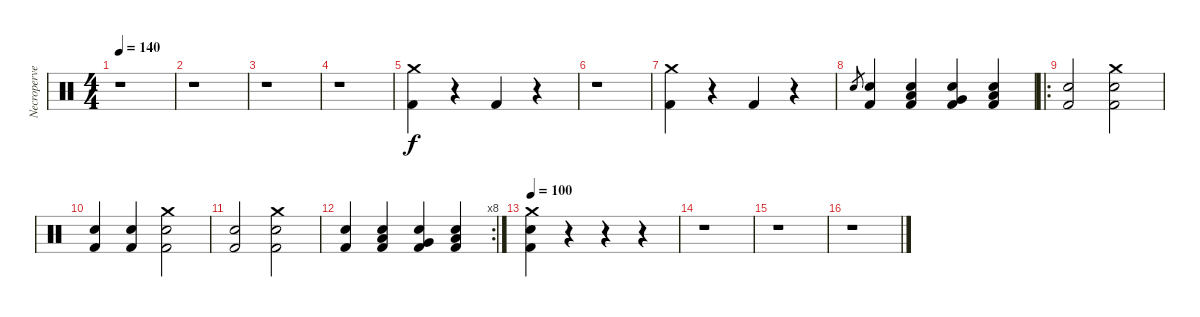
\track ("Necroperversor" "Necroperve") {instrument percussion}
\staff {score}
\articulation defaults
\ts (4 4)
\tempo 140
\clef neutral
\ks c
r.1{dy f} |
r.1 |
r.1 |
r.1 |
("Crash medium (hit)" "Kick (hit) 2").4 r.4 "Kick (hit) 2".4 r.4 |
r.1 |
("Crash medium (hit)" "Kick (hit) 2").4 r.4 "Kick (hit) 2".4 r.4 |
"Electric Snare (hit)".8{gr} ("Electric Snare (hit)" "Kick (hit) 2").4 ("Low Tom (hit)" "Electric Snare (hit)" "Kick (hit) 2").4 ("Very Low Tom (hit)" "Electric Snare (hit)" "Kick (hit) 2").4 ("Low Floor Tom (hit)" "Electric Snare (hit)" "Kick (hit) 2").4 |
\ro
("Electric Snare (hit)" "Kick (hit) 2").2 ("Crash medium (hit)" "Electric Snare (hit)" "Kick (hit) 2").2 |
("Electric Snare (hit)" "Kick (hit) 2").4 ("Electric Snare (hit)" "Kick (hit) 2").4 ("Crash medium (hit)" "Electric Snare (hit)" "Kick (hit) 2").2 |
("Electric Snare (hit)" "Kick (hit) 2").2 ("Crash medium (hit)" "Electric Snare (hit)" "Kick (hit) 2").2 |
\rc 8
("Electric Snare (hit)" "Kick (hit) 2").4 ("Low Tom (hit)" "Electric Snare (hit)" "Kick (hit) 2").4 ("Very Low Tom (hit)" "Electric Snare (hit)" "Kick (hit) 2").4 ("Low Floor Tom (hit)" "Electric Snare (hit)" "Kick (hit) 2").4 |
\tempo 100
("Crash medium (hit)" "Electric Snare (hit)" "Kick (hit) 2").4 r.4 r.4 r.4 |
r.1 |
r.1 |
r.1
